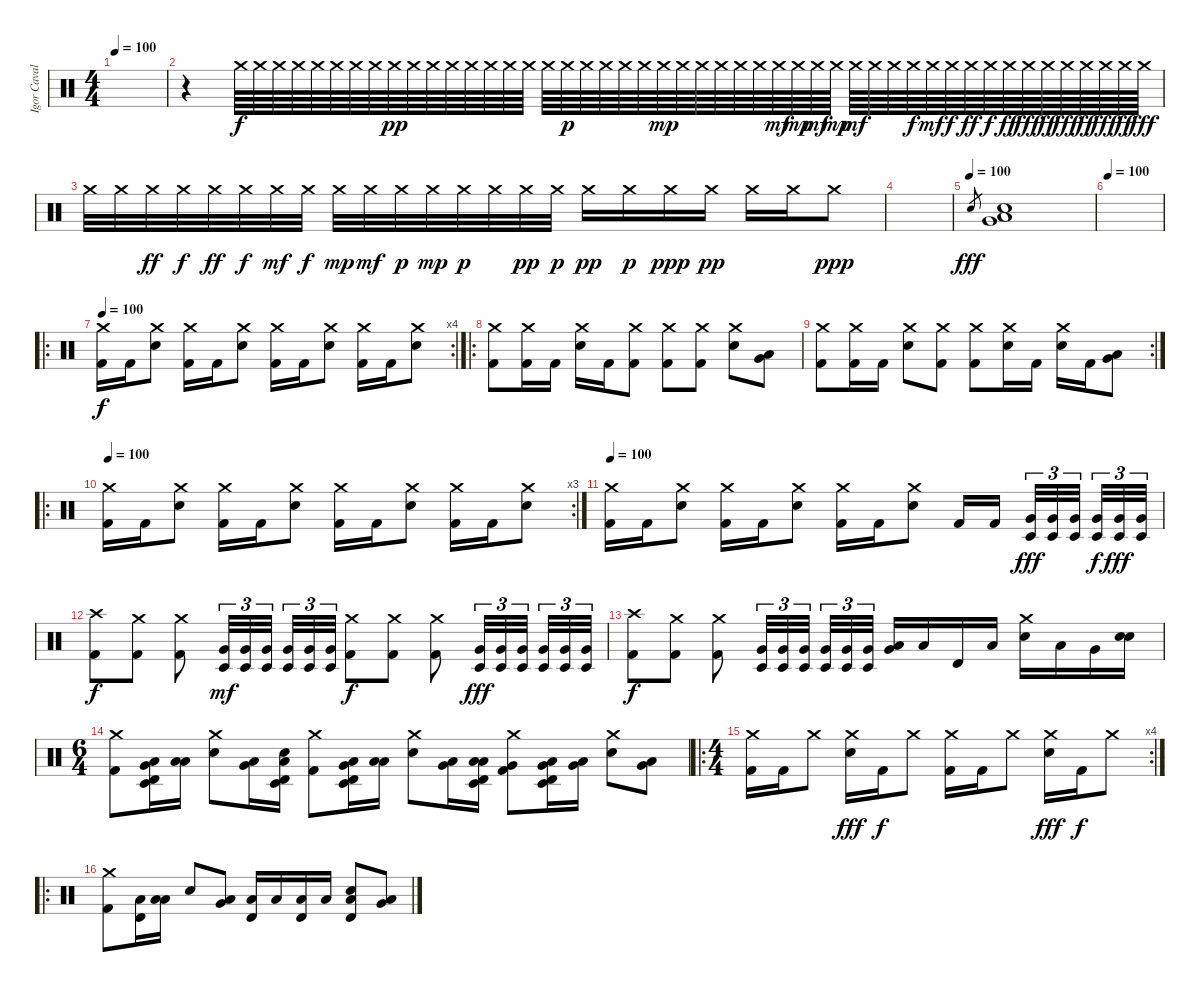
\track ("Igor Cavalera" "Igor Caval") {instrument percussion}
\staff {score}
\articulation defaults
\ts (4 4)
\tempo 100
\tempo 55
\tempo 100
\clef neutral
\ks c
|
r.4 "Crash medium (hit)".64 "Crash medium (hit)".64 "Crash medium (hit)".64 "Crash medium (hit)".64 "Crash medium (hit)".64 "Crash medium (hit)".64 "Crash medium (hit)".64 "Crash medium (hit)".64 "Crash medium (hit)".64{dy pp} "Crash medium (hit)".64 "Crash medium (hit)".64 "Crash medium (hit)".64 "Crash medium (hit)".64 "Crash medium (hit)".64 "Crash medium (hit)".64 "Crash medium (hit)".64 "Crash medium (hit)".64 "Crash medium (hit)".64{dy p} "Crash medium (hit)".64 "Crash medium (hit)".64 "Crash medium (hit)".64 "Crash medium (hit)".64 "Crash medium (hit)".64{dy mp} "Crash medium (hit)".64 "Crash medium (hit)".64 "Crash medium (hit)".64 "Crash medium (hit)".64 "Crash medium (hit)".64 "Crash medium (hit)".64{dy mf} "Crash medium (hit)".64{dy mp} "Crash medium (hit)".64{dy mf} "Crash medium (hit)".64{dy mp} "Crash medium (hit)".64{dy mf} "Crash medium (hit)".64 "Crash medium (hit)".64 "Crash medium (hit)".64{dy f} "Crash medium (hit)".64{dy mf} "Crash medium (hit)".64{dy f} "Crash medium (hit)".64{dy ff} "Crash medium (hit)".64{dy f} "Crash medium (hit)".64{dy ff} "Crash medium (hit)".64{dy fff} "Crash medium (hit)".64{dy ff} "Crash medium (hit)".64{dy fff} "Crash medium (hit)".64{dy ff} "Crash medium (hit)".64{dy fff} "Crash medium (hit)".64{dy ff} "Crash medium (hit)".64{dy fff} |
"Crash medium (hit)".32 "Crash medium (hit)".32 "Crash medium (hit)".32{dy ff} "Crash medium (hit)".32{dy f} "Crash medium (hit)".32{dy ff} "Crash medium (hit)".32{dy f} "Crash medium (hit)".32{dy mf} "Crash medium (hit)".32{dy f} "Crash medium (hit)".32{dy mp} "Crash medium (hit)".32{dy mf} "Crash medium (hit)".32{dy p} "Crash medium (hit)".32{dy mp} "Crash medium (hit)".32{dy p} "Crash medium (hit)".32 "Crash medium (hit)".32{dy pp} "Crash medium (hit)".32{dy p} "Crash medium (hit)".16{dy pp} "Crash medium (hit)".16{dy p} "Crash medium (hit)".16{dy ppp} "Crash medium (hit)".16{dy pp} "Crash medium (hit)".16 "Crash medium (hit)".16 "Crash medium (hit)".8{dy ppp} |
|
\tempo (100)
"Electric Snare (hit)".8{gr dy fff} ("Very Low Tom (hit)" "Electric Snare (hit)" "Low Floor Tom (hit)").1 |
\tempo 100
|
\ro
\rc 4
\tempo 100
("Crash medium (hit)" "Kick (hit) 2").16{dy f} "Kick (hit) 2".16 ("Crash medium (hit)" "Electric Snare (hit)").8 ("Crash medium (hit)" "Kick (hit) 2").16 "Kick (hit) 2".16 ("Crash medium (hit)" "Electric Snare (hit)").8 ("Crash medium (hit)" "Kick (hit) 2").16 "Kick (hit) 2".16 ("Crash medium (hit)" "Electric Snare (hit)").8 ("Crash medium (hit)" "Kick (hit) 2").16 "Kick (hit) 2".16 ("Crash medium (hit)" "Electric Snare (hit)").8 |
\ro
("Kick (hit) 2" "Crash medium (hit)").8 ("Crash medium (hit)" "Kick (hit) 2").16 "Kick (hit) 2".16 ("Crash medium (hit)" "Electric Snare (hit)").16 "Kick (hit) 2".16 ("Crash medium (hit)" "Kick (hit) 2").8 ("Crash medium (hit)" "Kick (hit) 2").8 ("Crash medium (hit)" "Kick (hit) 2").8 ("Crash medium (hit)" "Electric Snare (hit)").8 ("Very Low Tom (hit)" "Low Tom (hit)").8 |
\rc 2
("Kick (hit) 2" "Crash medium (hit)").8 ("Crash medium (hit)" "Kick (hit) 2").16 "Kick (hit) 2".16 ("Crash medium (hit)" "Electric Snare (hit)").8 ("Crash medium (hit)" "Kick (hit) 2").8 ("Crash medium (hit)" "Kick (hit) 2").8 ("Crash medium (hit)" "Electric Snare (hit)").16 "Kick (hit) 2".16 ("Crash medium (hit)" "Electric Snare (hit)").16 "Kick (hit) 2".16 ("Very Low Tom (hit)" "Low Tom (hit)").8 |
\ro
\rc 3
\tempo 100
("Crash medium (hit)" "Kick (hit) 2").16 "Kick (hit) 2".16 ("Crash medium (hit)" "Electric Snare (hit)").8 ("Crash medium (hit)" "Kick (hit) 2").16 "Kick (hit) 2".16 ("Crash medium (hit)" "Electric Snare (hit)").8 ("Crash medium (hit)" "Kick (hit) 2").16 "Kick (hit) 2".16 ("Crash medium (hit)" "Electric Snare (hit)").8 ("Crash medium (hit)" "Kick (hit) 2").16 "Kick (hit) 2".16 ("Crash medium (hit)" "Electric Snare (hit)").8 |
\tempo 100
("Crash medium (hit)" "Kick (hit) 2").16 "Kick (hit) 2".16 ("Crash medium (hit)" "Electric Snare (hit)").8 ("Crash medium (hit)" "Kick (hit) 2").16 "Kick (hit) 2".16 ("Crash medium (hit)" "Electric Snare (hit)").8 ("Crash medium (hit)" "Kick (hit) 2").16 "Kick (hit) 2".16 ("Crash medium (hit)" "Electric Snare (hit)").8 "Kick (hit) 2".16 "Kick (hit) 2".16{beam splitsecondary} ("Very Low Tom (hit)" "Timbale low (hit)").32{tu (3 2) dy fff} ("Very Low Tom (hit)" "Timbale low (hit)").32{tu (3 2)} ("Very Low Tom (hit)" "Timbale low (hit)").32{tu (3 2) beam splitsecondary} ("Very Low Tom (hit)" "Timbale low (hit)").32{tu (3 2) dy f} ("Very Low Tom (hit)" "Timbale low (hit)").32{tu (3 2) dy fff} ("Very Low Tom (hit)" "Timbale low (hit)").32{tu (3 2)} |
("Crash high (hit)" "Kick (hit) 2").8{dy f} ("Crash medium (hit)" "Kick (hit) 2").8 ("Crash medium (hit)" "Kick (hit) 2").8 ("Very Low Tom (hit)" "Timbale low (hit)").32{tu (3 2) dy mf} ("Very Low Tom (hit)" "Timbale low (hit)").32{tu (3 2)} ("Very Low Tom (hit)" "Timbale low (hit)").32{tu (3 2) beam splitsecondary} ("Very Low Tom (hit)" "Timbale low (hit)").32{tu (3 2)} ("Very Low Tom (hit)" "Timbale low (hit)").32{tu (3 2)} ("Very Low Tom (hit)" "Timbale low (hit)").32{tu (3 2)} ("Crash medium (hit)" "Kick (hit) 2").8{dy f} ("Crash medium (hit)" "Kick (hit) 2").8 ("Crash medium (hit)" "Kick (hit) 2").8 ("Timbale low (hit)" "Very Low Tom (hit)").32{tu (3 2) dy fff} ("Timbale low (hit)" "Very Low Tom (hit)").32{tu (3 2)} ("Timbale low (hit)" "Very Low Tom (hit)").32{tu (3 2) beam splitsecondary} ("Timbale low (hit)" "Very Low Tom (hit)").32{tu (3 2)} ("Timbale low (hit)" "Very Low Tom (hit)").32{tu (3 2)} ("Timbale low (hit)" "Very Low Tom (hit)").32{tu (3 2)} |
("Crash high (hit)" "Kick (hit) 2").8{dy f} ("Crash medium (hit)" "Kick (hit) 2").8 ("Crash medium (hit)" "Kick (hit) 2").8 ("Very Low Tom (hit)" "Timbale low (hit)").32{tu (3 2)} ("Very Low Tom (hit)" "Timbale low (hit)").32{tu (3 2)} ("Very Low Tom (hit)" "Timbale low (hit)").32{tu (3 2) beam splitsecondary} ("Very Low Tom (hit)" "Timbale low (hit)").32{tu (3 2)} ("Very Low Tom (hit)" "Timbale low (hit)").32{tu (3 2)} ("Very Low Tom (hit)" "Timbale low (hit)").32{tu (3 2)} ("Very Low Tom (hit)" "Low Tom (hit)").16 "Low Tom (hit)".16 "Timbale high (hit)".16 "Low Tom (hit)".16 ("Electric Snare (hit)" "Crash medium (hit)").16 "Low Tom (hit)".16 "Very Low Tom (hit)".16 ("Electric Snare (hit)" "Electric Snare (hit)").16 |
\ts (6 4)
("Kick (hit) 2" "Crash medium (hit)").8 ("Timbale low (hit)" "Timbale high (hit)" "Low Tom (hit)" "Very Low Tom (hit)").16 ("Low Tom (hit)" "Low Tom (hit)").16 ("Electric Snare (hit)" "Crash medium (hit)").8 ("Low Tom (hit)" "Very Low Tom (hit)").16 ("Timbale low (hit)" "Timbale high (hit)" "Low Tom (hit)" "Electric Snare (hit)").16 ("Crash medium (hit)" "Kick (hit) 2").8 ("Timbale low (hit)" "Timbale high (hit)" "Low Tom (hit)" "Very Low Tom (hit)").16 ("Low Tom (hit)" "Low Tom (hit)").16 ("Electric Snare (hit)" "Crash medium (hit)").8 ("Low Tom (hit)" "Very Low Tom (hit)").16 ("Timbale high (hit)" "Timbale low (hit)" "Low Tom (hit)" "Low Tom (hit)").16 ("Crash medium (hit)" "Very Low Tom (hit)" "Kick (hit) 2").8 ("Timbale low (hit)" "Timbale high (hit)" "Low Tom (hit)" "Very Low Tom (hit)").16 ("Low Tom (hit)" "Very Low Tom (hit)").16 ("Electric Snare (hit)" "Crash medium (hit)").8 ("Very Low Tom (hit)" "Low Tom (hit)").8 |
\ro
\rc 4
\ts (4 4)
("Crash medium (hit)" "Kick (hit) 2").16 "Kick (hit) 2".16 "Crash medium (hit)".8 ("Crash medium (hit)" "Electric Snare (hit)").16{dy fff} "Kick (hit) 2".16{dy f} "Crash medium (hit)".8 ("Crash medium (hit)" "Kick (hit) 2").16 "Kick (hit) 2".16 "Crash medium (hit)".8 ("Crash medium (hit)" "Electric Snare (hit)").16{dy fff} "Kick (hit) 2".16{dy f} "Crash medium (hit)".8 |
\ro
("Kick (hit) 2" "Crash medium (hit)").8 ("Timbale high (hit)" "Low Tom (hit)").16 ("Low Tom (hit)" "Low Tom (hit)").16 "Electric Snare (hit)".8 ("Very Low Tom (hit)" "Low Tom (hit)").8 ("Timbale high (hit)" "Low Tom (hit)").16 "Low Tom (hit)".16 ("Timbale high (hit)" "Low Tom (hit)").16 "Low Tom (hit)".16 ("Electric Snare (hit)" "Low Tom (hit)" "Timbale high (hit)").8 ("Low Tom (hit)" "Very Low Tom (hit)").8
